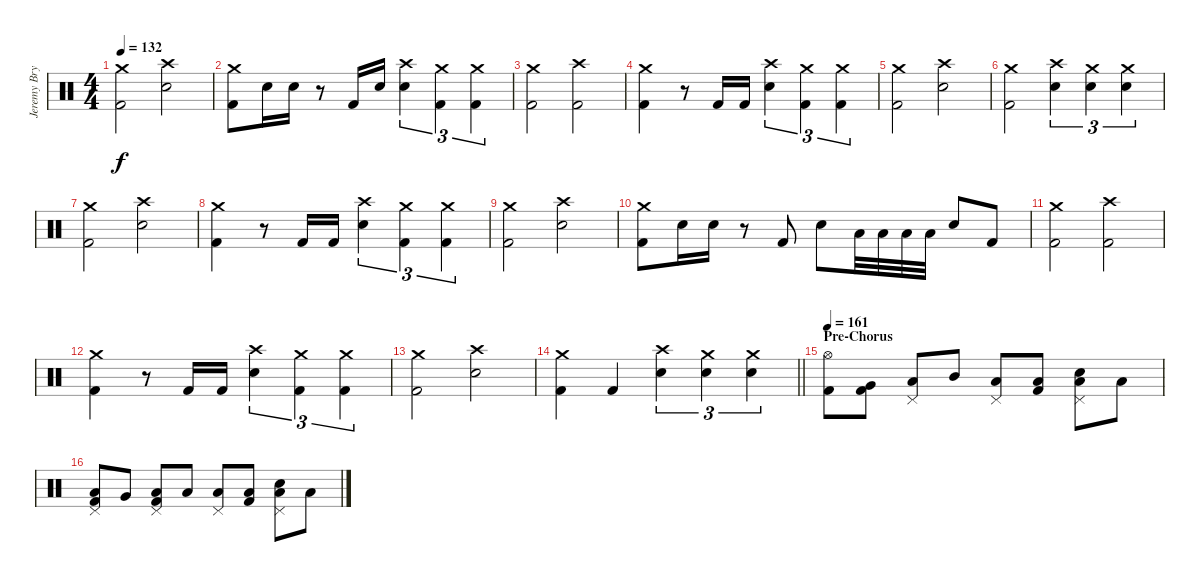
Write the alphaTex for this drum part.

\track ("Jeremy Bryan - Drums" "Jeremy Bry") {instrument percussion}
\staff {score}
\articulation defaults
\ts (4 4)
\tempo 132
\clef neutral
\ks c
("Crash medium (hit)" "Kick (hit) 2").2{dy f} ("Crash high (hit)" "Electric Snare (hit)").2 |
("Crash medium (hit)" "Kick (hit) 2").8 "Electric Snare (hit)".16 "Electric Snare (hit)".16 r.8 "Kick (hit) 2".16 "Electric Snare (hit)".16 ("Crash high (hit)" "Electric Snare (hit)").4{tu (3 2)} ("Crash medium (hit)" "Kick (hit) 2").4{tu (3 2)} ("Crash medium (hit)" "Kick (hit) 2").4{tu (3 2)} |
("Crash medium (hit)" "Kick (hit) 2").2 ("Crash high (hit)" "Kick (hit) 2").2 |
("Crash medium (hit)" "Kick (hit) 2").4 r.8 "Kick (hit) 2".16 "Kick (hit) 2".16 ("Crash high (hit)" "Electric Snare (hit)").4{tu (3 2)} ("Crash medium (hit)" "Kick (hit) 2").4{tu (3 2)} ("Crash medium (hit)" "Kick (hit) 2").4{tu (3 2)} |
("Crash medium (hit)" "Kick (hit) 2").2 ("Crash high (hit)" "Electric Snare (hit)").2 |
("Crash medium (hit)" "Kick (hit) 2").2 ("Crash high (hit)" "Electric Snare (hit)").4{tu (3 2)} ("Crash medium (hit)" "Electric Snare (hit)").4{tu (3 2)} ("Crash medium (hit)" "Electric Snare (hit)").4{tu (3 2)} |
("Crash medium (hit)" "Kick (hit) 2").2 ("Crash high (hit)" "Electric Snare (hit)").2 |
("Crash medium (hit)" "Kick (hit) 2").4 r.8 "Kick (hit) 2".16 "Kick (hit) 2".16 ("Crash high (hit)" "Electric Snare (hit)").4{tu (3 2)} ("Crash medium (hit)" "Kick (hit) 2").4{tu (3 2)} ("Crash medium (hit)" "Kick (hit) 2").4{tu (3 2)} |
("Crash medium (hit)" "Kick (hit) 2").2 ("Crash high (hit)" "Electric Snare (hit)").2 |
("Crash medium (hit)" "Kick (hit) 2").8 "Electric Snare (hit)".16 "Electric Snare (hit)".16 r.8 "Kick (hit) 2".8 "Electric Snare (hit)".8 "Low Tom (hit)".32 "Low Tom (hit)".32 "Low Tom (hit)".32 "Low Tom (hit)".32 "Electric Snare (hit)".8 "Kick (hit) 2".8 |
("Crash medium (hit)" "Kick (hit) 2").2 ("Crash high (hit)" "Kick (hit) 2").2 |
("Crash medium (hit)" "Kick (hit) 2").4 r.8 "Kick (hit) 2".16 "Kick (hit) 2".16 ("Crash high (hit)" "Electric Snare (hit)").4{tu (3 2)} ("Crash medium (hit)" "Kick (hit) 2").4{tu (3 2)} ("Crash medium (hit)" "Kick (hit) 2").4{tu (3 2)} |
("Crash medium (hit)" "Kick (hit) 2").2 ("Crash high (hit)" "Electric Snare (hit)").2 |
\barLineRight lightlight
("Crash medium (hit)" "Kick (hit) 2").4 "Kick (hit) 2".4 ("Crash high (hit)" "Electric Snare (hit)").4{tu (3 2)} ("Crash medium (hit)" "Electric Snare (hit)").4{tu (3 2)} ("Crash medium (hit)" "Electric Snare (hit)").4{tu (3 2)} |
\section ("" "Pre-Chorus")
\tempo 161
("Hi-Hat (open)" "Kick (hit) 2").8 ("Very Low Tom (hit)" "Kick (hit) 2").8 ("Pedal Hi-Hat (hit)" "Low Tom (hit)").8 "Mid Tom (hit)".8 ("Pedal Hi-Hat (hit)" "Low Floor Tom (hit)").8 ("Low Floor Tom (hit)" "Kick (hit) 2").8 ("Pedal Hi-Hat (hit)" "Low Floor Tom (hit)" "Electric Snare (hit)").8 "Low Floor Tom (hit)".8 |
("Pedal Hi-Hat (hit)" "Low Floor Tom (hit)" "Kick (hit) 2").8 "Very Low Tom (hit)".8 ("Pedal Hi-Hat (hit)" "Low Tom (hit)" "Kick (hit) 2").8 "Low Tom (hit)".8 ("Pedal Hi-Hat (hit)" "Low Floor Tom (hit)").8 ("Low Floor Tom (hit)" "Kick (hit) 2").8 ("Pedal Hi-Hat (hit)" "Low Floor Tom (hit)" "Electric Snare (hit)").8 "Low Floor Tom (hit)".8
